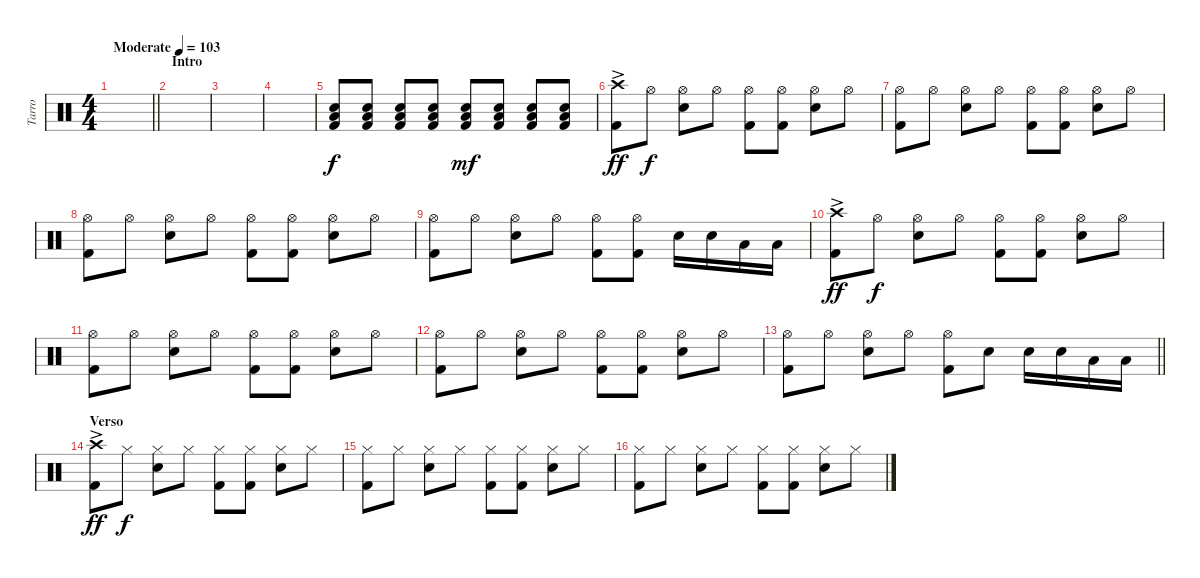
\track ("Tarro" "Tarro") {instrument percussion}
\staff {score}
\articulation defaults
\ts (4 4)
\tempo (103 "Moderate")
\clef neutral
\barLineRight lightlight
\ks c
|
\section ("" "Intro")
|
|
|
("Low Floor Tom (hit)" "Electric Snare (hit)" "Kick (hit) 2").8 ("Low Floor Tom (hit)" "Electric Snare (hit)" "Kick (hit) 2").8 ("Low Floor Tom (hit)" "Electric Snare (hit)" "Kick (hit) 2").8 ("Low Floor Tom (hit)" "Electric Snare (hit)" "Kick (hit) 2").8 ("Low Floor Tom (hit)" "Electric Snare (hit)" "Kick (hit) 2").8{dy mf} ("Low Floor Tom (hit)" "Electric Snare (hit)" "Kick (hit) 2").8 ("Low Floor Tom (hit)" "Electric Snare (hit)" "Kick (hit) 2").8 ("Low Floor Tom (hit)" "Electric Snare (hit)" "Kick (hit) 2").8 |
("Crash high (hit)"{ac} "Kick (hit) 2").8{dy ff} "Hi-Hat (open)".8{dy f} ("Hi-Hat (open)" "Electric Snare (hit)").8 "Hi-Hat (open)".8 ("Hi-Hat (open)" "Kick (hit) 2").8 ("Hi-Hat (open)" "Kick (hit) 2").8 ("Hi-Hat (open)" "Electric Snare (hit)").8 "Hi-Hat (open)".8 |
("Hi-Hat (open)" "Kick (hit) 2").8 "Hi-Hat (open)".8 ("Hi-Hat (open)" "Electric Snare (hit)").8 "Hi-Hat (open)".8 ("Hi-Hat (open)" "Kick (hit) 2").8 ("Hi-Hat (open)" "Kick (hit) 2").8 ("Hi-Hat (open)" "Electric Snare (hit)").8 "Hi-Hat (open)".8 |
("Hi-Hat (open)" "Kick (hit) 2").8 "Hi-Hat (open)".8 ("Hi-Hat (open)" "Electric Snare (hit)").8 "Hi-Hat (open)".8 ("Hi-Hat (open)" "Kick (hit) 2").8 ("Hi-Hat (open)" "Kick (hit) 2").8 ("Hi-Hat (open)" "Electric Snare (hit)").8 "Hi-Hat (open)".8 |
("Hi-Hat (open)" "Kick (hit) 2").8 "Hi-Hat (open)".8 ("Hi-Hat (open)" "Electric Snare (hit)").8 "Hi-Hat (open)".8 ("Hi-Hat (open)" "Kick (hit) 2").8 ("Hi-Hat (open)" "Kick (hit) 2").8 "Electric Snare (hit)".16 "Electric Snare (hit)".16 "Low Floor Tom (hit)".16 "Low Floor Tom (hit)".16 |
("Crash high (hit)"{ac} "Kick (hit) 2").8{dy ff} "Hi-Hat (open)".8{dy f} ("Hi-Hat (open)" "Electric Snare (hit)").8 "Hi-Hat (open)".8 ("Hi-Hat (open)" "Kick (hit) 2").8 ("Hi-Hat (open)" "Kick (hit) 2").8 ("Hi-Hat (open)" "Electric Snare (hit)").8 "Hi-Hat (open)".8 |
("Hi-Hat (open)" "Kick (hit) 2").8 "Hi-Hat (open)".8 ("Hi-Hat (open)" "Electric Snare (hit)").8 "Hi-Hat (open)".8 ("Hi-Hat (open)" "Kick (hit) 2").8 ("Hi-Hat (open)" "Kick (hit) 2").8 ("Hi-Hat (open)" "Electric Snare (hit)").8 "Hi-Hat (open)".8 |
("Hi-Hat (open)" "Kick (hit) 2").8 "Hi-Hat (open)".8 ("Hi-Hat (open)" "Electric Snare (hit)").8 "Hi-Hat (open)".8 ("Hi-Hat (open)" "Kick (hit) 2").8 ("Hi-Hat (open)" "Kick (hit) 2").8 ("Hi-Hat (open)" "Electric Snare (hit)").8 "Hi-Hat (open)".8 |
\barLineRight lightlight
("Hi-Hat (open)" "Kick (hit) 2").8 "Hi-Hat (open)".8 ("Hi-Hat (open)" "Electric Snare (hit)").8 "Hi-Hat (open)".8 ("Hi-Hat (open)" "Kick (hit) 2").8 "Electric Snare (hit)".8 "Electric Snare (hit)".16 "Electric Snare (hit)".16 "Low Floor Tom (hit)".16 "Low Floor Tom (hit)".16 |
\section ("" "Verso")
("Crash high (hit)"{ac} "Kick (hit) 2").8{dy ff} "Hi-Hat (closed)".8{dy f} ("Hi-Hat (closed)" "Electric Snare (hit)").8 "Hi-Hat (closed)".8 ("Hi-Hat (closed)" "Kick (hit) 2").8 ("Hi-Hat (closed)" "Kick (hit) 2").8 ("Hi-Hat (closed)" "Electric Snare (hit)").8 "Hi-Hat (closed)".8 |
("Hi-Hat (closed)" "Kick (hit) 2").8 "Hi-Hat (closed)".8 ("Hi-Hat (closed)" "Electric Snare (hit)").8 "Hi-Hat (closed)".8 ("Hi-Hat (closed)" "Kick (hit) 2").8 ("Hi-Hat (closed)" "Kick (hit) 2").8 ("Hi-Hat (closed)" "Electric Snare (hit)").8 "Hi-Hat (closed)".8 |
("Hi-Hat (closed)" "Kick (hit) 2").8 "Hi-Hat (closed)".8 ("Hi-Hat (closed)" "Electric Snare (hit)").8 "Hi-Hat (closed)".8 ("Hi-Hat (closed)" "Kick (hit) 2").8 ("Hi-Hat (closed)" "Kick (hit) 2").8 ("Hi-Hat (closed)" "Electric Snare (hit)").8 "Hi-Hat (closed)".8
